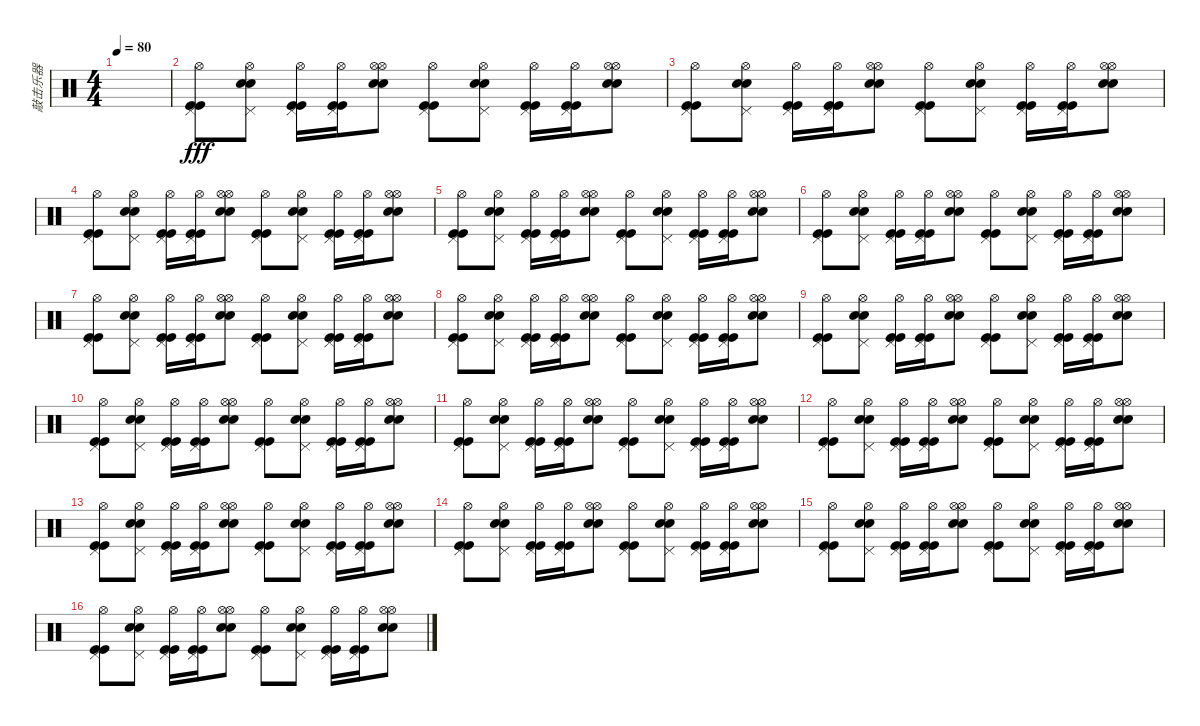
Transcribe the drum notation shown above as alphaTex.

\track ("敲击乐器" "敲击乐器") {instrument percussion}
\staff {score}
\articulation defaults
\ts (4 4)
\tempo 80
\clef neutral
\ks c
|
("Kick (hit)" "Kick (hit)" "Pedal Hi-Hat (hit)" "Hi-Hat (open)").8{dy fff volume 14} ("Electric Snare (hit)" "Electric Snare (hit)" "Pedal Hi-Hat (hit)" "Hi-Hat (open)").8 ("Kick (hit)" "Kick (hit)" "Pedal Hi-Hat (hit)" "Hi-Hat (open)").16 ("Kick (hit)" "Kick (hit)" "Pedal Hi-Hat (hit)" "Hi-Hat (open)").16 ("Electric Snare (hit)" "Electric Snare (hit)" "Hi-Hat (open)" "Hi-Hat (open)").8 ("Kick (hit)" "Kick (hit)" "Pedal Hi-Hat (hit)" "Hi-Hat (open)").8 ("Electric Snare (hit)" "Electric Snare (hit)" "Pedal Hi-Hat (hit)" "Hi-Hat (open)").8 ("Kick (hit)" "Kick (hit)" "Pedal Hi-Hat (hit)" "Hi-Hat (open)").16 ("Kick (hit)" "Kick (hit)" "Pedal Hi-Hat (hit)" "Hi-Hat (open)").16 ("Electric Snare (hit)" "Electric Snare (hit)" "Hi-Hat (open)" "Hi-Hat (open)").8 |
("Kick (hit)" "Kick (hit)" "Pedal Hi-Hat (hit)" "Hi-Hat (open)").8 ("Electric Snare (hit)" "Electric Snare (hit)" "Pedal Hi-Hat (hit)" "Hi-Hat (open)").8 ("Kick (hit)" "Kick (hit)" "Pedal Hi-Hat (hit)" "Hi-Hat (open)").16 ("Kick (hit)" "Kick (hit)" "Pedal Hi-Hat (hit)" "Hi-Hat (open)").16 ("Electric Snare (hit)" "Electric Snare (hit)" "Hi-Hat (open)" "Hi-Hat (open)").8 ("Kick (hit)" "Kick (hit)" "Pedal Hi-Hat (hit)" "Hi-Hat (open)").8 ("Electric Snare (hit)" "Electric Snare (hit)" "Pedal Hi-Hat (hit)" "Hi-Hat (open)").8 ("Kick (hit)" "Kick (hit)" "Pedal Hi-Hat (hit)" "Hi-Hat (open)").16 ("Kick (hit)" "Kick (hit)" "Pedal Hi-Hat (hit)" "Hi-Hat (open)").16 ("Electric Snare (hit)" "Electric Snare (hit)" "Hi-Hat (open)" "Hi-Hat (open)").8 |
("Kick (hit)" "Kick (hit)" "Pedal Hi-Hat (hit)" "Hi-Hat (open)").8 ("Electric Snare (hit)" "Electric Snare (hit)" "Pedal Hi-Hat (hit)" "Hi-Hat (open)").8 ("Kick (hit)" "Kick (hit)" "Pedal Hi-Hat (hit)" "Hi-Hat (open)").16 ("Kick (hit)" "Kick (hit)" "Pedal Hi-Hat (hit)" "Hi-Hat (open)").16 ("Electric Snare (hit)" "Electric Snare (hit)" "Hi-Hat (open)" "Hi-Hat (open)").8 ("Kick (hit)" "Kick (hit)" "Pedal Hi-Hat (hit)" "Hi-Hat (open)").8 ("Electric Snare (hit)" "Electric Snare (hit)" "Pedal Hi-Hat (hit)" "Hi-Hat (open)").8 ("Kick (hit)" "Kick (hit)" "Pedal Hi-Hat (hit)" "Hi-Hat (open)").16 ("Kick (hit)" "Kick (hit)" "Pedal Hi-Hat (hit)" "Hi-Hat (open)").16 ("Electric Snare (hit)" "Electric Snare (hit)" "Hi-Hat (open)" "Hi-Hat (open)").8 |
("Kick (hit)" "Kick (hit)" "Pedal Hi-Hat (hit)" "Hi-Hat (open)").8 ("Electric Snare (hit)" "Electric Snare (hit)" "Pedal Hi-Hat (hit)" "Hi-Hat (open)").8 ("Kick (hit)" "Kick (hit)" "Pedal Hi-Hat (hit)" "Hi-Hat (open)").16 ("Kick (hit)" "Kick (hit)" "Pedal Hi-Hat (hit)" "Hi-Hat (open)").16 ("Electric Snare (hit)" "Electric Snare (hit)" "Hi-Hat (open)" "Hi-Hat (open)").8 ("Kick (hit)" "Kick (hit)" "Pedal Hi-Hat (hit)" "Hi-Hat (open)").8 ("Electric Snare (hit)" "Electric Snare (hit)" "Pedal Hi-Hat (hit)" "Hi-Hat (open)").8 ("Kick (hit)" "Kick (hit)" "Pedal Hi-Hat (hit)" "Hi-Hat (open)").16 ("Kick (hit)" "Kick (hit)" "Pedal Hi-Hat (hit)" "Hi-Hat (open)").16 ("Electric Snare (hit)" "Electric Snare (hit)" "Hi-Hat (open)" "Hi-Hat (open)").8 |
("Kick (hit)" "Kick (hit)" "Pedal Hi-Hat (hit)" "Hi-Hat (open)").8 ("Electric Snare (hit)" "Electric Snare (hit)" "Pedal Hi-Hat (hit)" "Hi-Hat (open)").8 ("Kick (hit)" "Kick (hit)" "Pedal Hi-Hat (hit)" "Hi-Hat (open)").16 ("Kick (hit)" "Kick (hit)" "Pedal Hi-Hat (hit)" "Hi-Hat (open)").16 ("Electric Snare (hit)" "Electric Snare (hit)" "Hi-Hat (open)" "Hi-Hat (open)").8 ("Kick (hit)" "Kick (hit)" "Pedal Hi-Hat (hit)" "Hi-Hat (open)").8 ("Electric Snare (hit)" "Electric Snare (hit)" "Pedal Hi-Hat (hit)" "Hi-Hat (open)").8 ("Kick (hit)" "Kick (hit)" "Pedal Hi-Hat (hit)" "Hi-Hat (open)").16 ("Kick (hit)" "Kick (hit)" "Pedal Hi-Hat (hit)" "Hi-Hat (open)").16 ("Electric Snare (hit)" "Electric Snare (hit)" "Hi-Hat (open)" "Hi-Hat (open)").8 |
("Kick (hit)" "Kick (hit)" "Pedal Hi-Hat (hit)" "Hi-Hat (open)").8 ("Electric Snare (hit)" "Electric Snare (hit)" "Pedal Hi-Hat (hit)" "Hi-Hat (open)").8 ("Kick (hit)" "Kick (hit)" "Pedal Hi-Hat (hit)" "Hi-Hat (open)").16 ("Kick (hit)" "Kick (hit)" "Pedal Hi-Hat (hit)" "Hi-Hat (open)").16 ("Electric Snare (hit)" "Electric Snare (hit)" "Hi-Hat (open)" "Hi-Hat (open)").8 ("Kick (hit)" "Kick (hit)" "Pedal Hi-Hat (hit)" "Hi-Hat (open)").8 ("Electric Snare (hit)" "Electric Snare (hit)" "Pedal Hi-Hat (hit)" "Hi-Hat (open)").8 ("Kick (hit)" "Kick (hit)" "Pedal Hi-Hat (hit)" "Hi-Hat (open)").16 ("Kick (hit)" "Kick (hit)" "Pedal Hi-Hat (hit)" "Hi-Hat (open)").16 ("Electric Snare (hit)" "Electric Snare (hit)" "Hi-Hat (open)" "Hi-Hat (open)").8 |
("Kick (hit)" "Kick (hit)" "Pedal Hi-Hat (hit)" "Hi-Hat (open)").8 ("Electric Snare (hit)" "Electric Snare (hit)" "Pedal Hi-Hat (hit)" "Hi-Hat (open)").8 ("Kick (hit)" "Kick (hit)" "Pedal Hi-Hat (hit)" "Hi-Hat (open)").16 ("Kick (hit)" "Kick (hit)" "Pedal Hi-Hat (hit)" "Hi-Hat (open)").16 ("Electric Snare (hit)" "Electric Snare (hit)" "Hi-Hat (open)" "Hi-Hat (open)").8 ("Kick (hit)" "Kick (hit)" "Pedal Hi-Hat (hit)" "Hi-Hat (open)").8 ("Electric Snare (hit)" "Electric Snare (hit)" "Pedal Hi-Hat (hit)" "Hi-Hat (open)").8 ("Kick (hit)" "Kick (hit)" "Pedal Hi-Hat (hit)" "Hi-Hat (open)").16 ("Kick (hit)" "Kick (hit)" "Pedal Hi-Hat (hit)" "Hi-Hat (open)").16 ("Electric Snare (hit)" "Electric Snare (hit)" "Hi-Hat (open)" "Hi-Hat (open)").8 |
("Kick (hit)" "Kick (hit)" "Pedal Hi-Hat (hit)" "Hi-Hat (open)").8 ("Electric Snare (hit)" "Electric Snare (hit)" "Pedal Hi-Hat (hit)" "Hi-Hat (open)").8 ("Kick (hit)" "Kick (hit)" "Pedal Hi-Hat (hit)" "Hi-Hat (open)").16 ("Kick (hit)" "Kick (hit)" "Pedal Hi-Hat (hit)" "Hi-Hat (open)").16 ("Electric Snare (hit)" "Electric Snare (hit)" "Hi-Hat (open)" "Hi-Hat (open)").8 ("Kick (hit)" "Kick (hit)" "Pedal Hi-Hat (hit)" "Hi-Hat (open)").8 ("Electric Snare (hit)" "Electric Snare (hit)" "Pedal Hi-Hat (hit)" "Hi-Hat (open)").8 ("Kick (hit)" "Kick (hit)" "Pedal Hi-Hat (hit)" "Hi-Hat (open)").16 ("Kick (hit)" "Kick (hit)" "Pedal Hi-Hat (hit)" "Hi-Hat (open)").16 ("Electric Snare (hit)" "Electric Snare (hit)" "Hi-Hat (open)" "Hi-Hat (open)").8 |
("Kick (hit)" "Kick (hit)" "Pedal Hi-Hat (hit)" "Hi-Hat (open)").8 ("Electric Snare (hit)" "Electric Snare (hit)" "Pedal Hi-Hat (hit)" "Hi-Hat (open)").8 ("Kick (hit)" "Kick (hit)" "Pedal Hi-Hat (hit)" "Hi-Hat (open)").16 ("Kick (hit)" "Kick (hit)" "Pedal Hi-Hat (hit)" "Hi-Hat (open)").16 ("Electric Snare (hit)" "Electric Snare (hit)" "Hi-Hat (open)" "Hi-Hat (open)").8 ("Kick (hit)" "Kick (hit)" "Pedal Hi-Hat (hit)" "Hi-Hat (open)").8 ("Electric Snare (hit)" "Electric Snare (hit)" "Pedal Hi-Hat (hit)" "Hi-Hat (open)").8 ("Kick (hit)" "Kick (hit)" "Pedal Hi-Hat (hit)" "Hi-Hat (open)").16 ("Kick (hit)" "Kick (hit)" "Pedal Hi-Hat (hit)" "Hi-Hat (open)").16 ("Electric Snare (hit)" "Electric Snare (hit)" "Hi-Hat (open)" "Hi-Hat (open)").8 |
("Kick (hit)" "Kick (hit)" "Pedal Hi-Hat (hit)" "Hi-Hat (open)").8 ("Electric Snare (hit)" "Electric Snare (hit)" "Pedal Hi-Hat (hit)" "Hi-Hat (open)").8 ("Kick (hit)" "Kick (hit)" "Pedal Hi-Hat (hit)" "Hi-Hat (open)").16 ("Kick (hit)" "Kick (hit)" "Pedal Hi-Hat (hit)" "Hi-Hat (open)").16 ("Electric Snare (hit)" "Electric Snare (hit)" "Hi-Hat (open)" "Hi-Hat (open)").8 ("Kick (hit)" "Kick (hit)" "Pedal Hi-Hat (hit)" "Hi-Hat (open)").8 ("Electric Snare (hit)" "Electric Snare (hit)" "Pedal Hi-Hat (hit)" "Hi-Hat (open)").8 ("Kick (hit)" "Kick (hit)" "Pedal Hi-Hat (hit)" "Hi-Hat (open)").16 ("Kick (hit)" "Kick (hit)" "Pedal Hi-Hat (hit)" "Hi-Hat (open)").16 ("Electric Snare (hit)" "Electric Snare (hit)" "Hi-Hat (open)" "Hi-Hat (open)").8 |
("Kick (hit)" "Kick (hit)" "Pedal Hi-Hat (hit)" "Hi-Hat (open)").8 ("Electric Snare (hit)" "Electric Snare (hit)" "Pedal Hi-Hat (hit)" "Hi-Hat (open)").8 ("Kick (hit)" "Kick (hit)" "Pedal Hi-Hat (hit)" "Hi-Hat (open)").16 ("Kick (hit)" "Kick (hit)" "Pedal Hi-Hat (hit)" "Hi-Hat (open)").16 ("Electric Snare (hit)" "Electric Snare (hit)" "Hi-Hat (open)" "Hi-Hat (open)").8 ("Kick (hit)" "Kick (hit)" "Pedal Hi-Hat (hit)" "Hi-Hat (open)").8 ("Electric Snare (hit)" "Electric Snare (hit)" "Pedal Hi-Hat (hit)" "Hi-Hat (open)").8 ("Kick (hit)" "Kick (hit)" "Pedal Hi-Hat (hit)" "Hi-Hat (open)").16 ("Kick (hit)" "Kick (hit)" "Pedal Hi-Hat (hit)" "Hi-Hat (open)").16 ("Electric Snare (hit)" "Electric Snare (hit)" "Hi-Hat (open)" "Hi-Hat (open)").8 |
("Kick (hit)" "Kick (hit)" "Pedal Hi-Hat (hit)" "Hi-Hat (open)").8 ("Electric Snare (hit)" "Electric Snare (hit)" "Pedal Hi-Hat (hit)" "Hi-Hat (open)").8 ("Kick (hit)" "Kick (hit)" "Pedal Hi-Hat (hit)" "Hi-Hat (open)").16 ("Kick (hit)" "Kick (hit)" "Pedal Hi-Hat (hit)" "Hi-Hat (open)").16 ("Electric Snare (hit)" "Electric Snare (hit)" "Hi-Hat (open)" "Hi-Hat (open)").8 ("Kick (hit)" "Kick (hit)" "Pedal Hi-Hat (hit)" "Hi-Hat (open)").8 ("Electric Snare (hit)" "Electric Snare (hit)" "Pedal Hi-Hat (hit)" "Hi-Hat (open)").8 ("Kick (hit)" "Kick (hit)" "Pedal Hi-Hat (hit)" "Hi-Hat (open)").16 ("Kick (hit)" "Kick (hit)" "Pedal Hi-Hat (hit)" "Hi-Hat (open)").16 ("Electric Snare (hit)" "Electric Snare (hit)" "Hi-Hat (open)" "Hi-Hat (open)").8 |
("Kick (hit)" "Kick (hit)" "Pedal Hi-Hat (hit)" "Hi-Hat (open)").8 ("Electric Snare (hit)" "Electric Snare (hit)" "Pedal Hi-Hat (hit)" "Hi-Hat (open)").8 ("Kick (hit)" "Kick (hit)" "Pedal Hi-Hat (hit)" "Hi-Hat (open)").16 ("Kick (hit)" "Kick (hit)" "Pedal Hi-Hat (hit)" "Hi-Hat (open)").16 ("Electric Snare (hit)" "Electric Snare (hit)" "Hi-Hat (open)" "Hi-Hat (open)").8 ("Kick (hit)" "Kick (hit)" "Pedal Hi-Hat (hit)" "Hi-Hat (open)").8 ("Electric Snare (hit)" "Electric Snare (hit)" "Pedal Hi-Hat (hit)" "Hi-Hat (open)").8 ("Kick (hit)" "Kick (hit)" "Pedal Hi-Hat (hit)" "Hi-Hat (open)").16 ("Kick (hit)" "Kick (hit)" "Pedal Hi-Hat (hit)" "Hi-Hat (open)").16 ("Electric Snare (hit)" "Electric Snare (hit)" "Hi-Hat (open)" "Hi-Hat (open)").8 |
("Kick (hit)" "Kick (hit)" "Pedal Hi-Hat (hit)" "Hi-Hat (open)").8 ("Electric Snare (hit)" "Electric Snare (hit)" "Pedal Hi-Hat (hit)" "Hi-Hat (open)").8 ("Kick (hit)" "Kick (hit)" "Pedal Hi-Hat (hit)" "Hi-Hat (open)").16 ("Kick (hit)" "Kick (hit)" "Pedal Hi-Hat (hit)" "Hi-Hat (open)").16 ("Electric Snare (hit)" "Electric Snare (hit)" "Hi-Hat (open)" "Hi-Hat (open)").8 ("Kick (hit)" "Kick (hit)" "Pedal Hi-Hat (hit)" "Hi-Hat (open)").8 ("Electric Snare (hit)" "Electric Snare (hit)" "Pedal Hi-Hat (hit)" "Hi-Hat (open)").8 ("Kick (hit)" "Kick (hit)" "Pedal Hi-Hat (hit)" "Hi-Hat (open)").16 ("Kick (hit)" "Kick (hit)" "Pedal Hi-Hat (hit)" "Hi-Hat (open)").16 ("Electric Snare (hit)" "Electric Snare (hit)" "Hi-Hat (open)" "Hi-Hat (open)").8 |
("Kick (hit)" "Kick (hit)" "Pedal Hi-Hat (hit)" "Hi-Hat (open)").8 ("Electric Snare (hit)" "Electric Snare (hit)" "Pedal Hi-Hat (hit)" "Hi-Hat (open)").8 ("Kick (hit)" "Kick (hit)" "Pedal Hi-Hat (hit)" "Hi-Hat (open)").16 ("Kick (hit)" "Kick (hit)" "Pedal Hi-Hat (hit)" "Hi-Hat (open)").16 ("Electric Snare (hit)" "Electric Snare (hit)" "Hi-Hat (open)" "Hi-Hat (open)").8 ("Kick (hit)" "Kick (hit)" "Pedal Hi-Hat (hit)" "Hi-Hat (open)").8 ("Electric Snare (hit)" "Electric Snare (hit)" "Pedal Hi-Hat (hit)" "Hi-Hat (open)").8 ("Kick (hit)" "Kick (hit)" "Pedal Hi-Hat (hit)" "Hi-Hat (open)").16 ("Kick (hit)" "Kick (hit)" "Pedal Hi-Hat (hit)" "Hi-Hat (open)").16 ("Electric Snare (hit)" "Electric Snare (hit)" "Hi-Hat (open)" "Hi-Hat (open)").8
